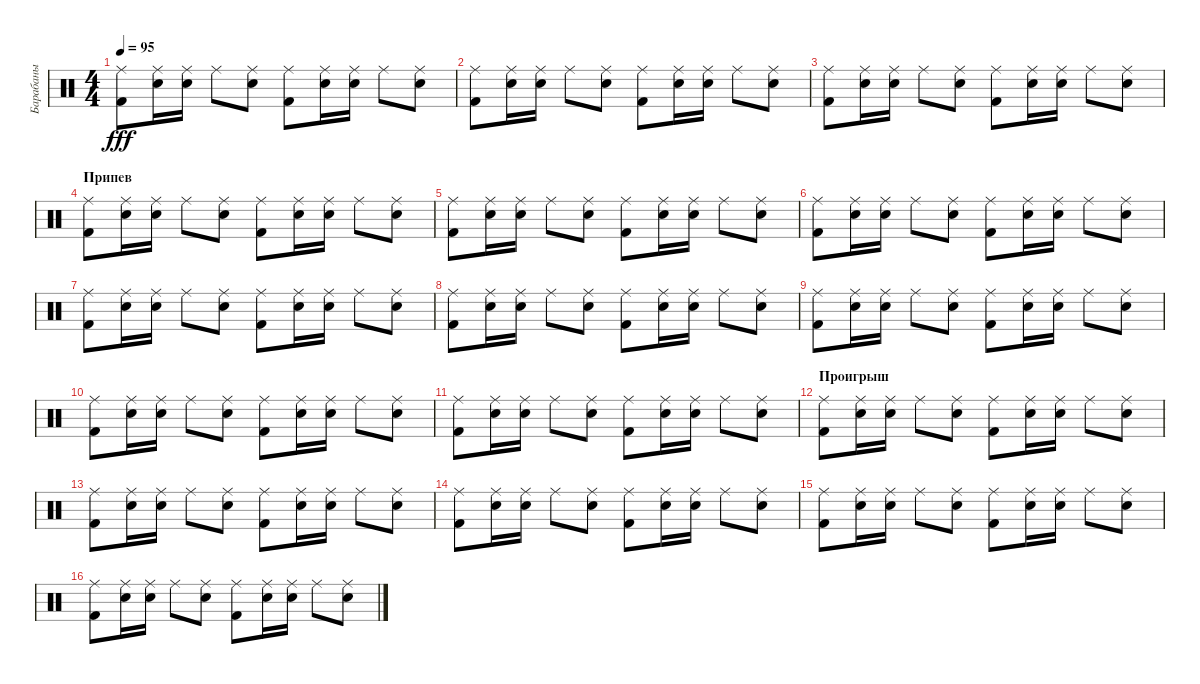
\track ("Барабаны" "Барабаны") {instrument percussion}
\staff {score}
\articulation defaults
\ts (4 4)
\tempo 95
\clef neutral
\ks c
("Kick (hit) 2" "Ride (middle)").8{dy fff} ("Snare (hit) 2" "Ride (middle)").16 ("Snare (hit) 2" "Ride (middle)").16 "Ride (middle)".8 ("Snare (hit) 2" "Ride (middle)").8 ("Kick (hit) 2" "Ride (middle)").8 ("Snare (hit) 2" "Ride (middle)").16 ("Snare (hit) 2" "Ride (middle)").16 "Ride (middle)".8 ("Snare (hit) 2" "Ride (middle)").8 |
("Kick (hit) 2" "Ride (middle)").8 ("Snare (hit) 2" "Ride (middle)").16 ("Snare (hit) 2" "Ride (middle)").16 "Ride (middle)".8 ("Snare (hit) 2" "Ride (middle)").8 ("Kick (hit) 2" "Ride (middle)").8 ("Snare (hit) 2" "Ride (middle)").16 ("Snare (hit) 2" "Ride (middle)").16 "Ride (middle)".8 ("Snare (hit) 2" "Ride (middle)").8 |
("Kick (hit) 2" "Ride (middle)").8 ("Snare (hit) 2" "Ride (middle)").16 ("Snare (hit) 2" "Ride (middle)").16 "Ride (middle)".8 ("Snare (hit) 2" "Ride (middle)").8 ("Kick (hit) 2" "Ride (middle)").8 ("Snare (hit) 2" "Ride (middle)").16 ("Snare (hit) 2" "Ride (middle)").16 "Ride (middle)".8 ("Snare (hit) 2" "Ride (middle)").8 |
\section ("" "Припев")
("Kick (hit) 2" "Ride (middle)").8 ("Snare (hit) 2" "Ride (middle)").16 ("Snare (hit) 2" "Ride (middle)").16 "Ride (middle)".8 ("Snare (hit) 2" "Ride (middle)").8 ("Kick (hit) 2" "Ride (middle)").8 ("Snare (hit) 2" "Ride (middle)").16 ("Snare (hit) 2" "Ride (middle)").16 "Ride (middle)".8 ("Snare (hit) 2" "Ride (middle)").8 |
("Kick (hit) 2" "Ride (middle)").8 ("Snare (hit) 2" "Ride (middle)").16 ("Snare (hit) 2" "Ride (middle)").16 "Ride (middle)".8 ("Snare (hit) 2" "Ride (middle)").8 ("Kick (hit) 2" "Ride (middle)").8 ("Snare (hit) 2" "Ride (middle)").16 ("Snare (hit) 2" "Ride (middle)").16 "Ride (middle)".8 ("Snare (hit) 2" "Ride (middle)").8 |
("Kick (hit) 2" "Ride (middle)").8 ("Snare (hit) 2" "Ride (middle)").16 ("Snare (hit) 2" "Ride (middle)").16 "Ride (middle)".8 ("Snare (hit) 2" "Ride (middle)").8 ("Kick (hit) 2" "Ride (middle)").8 ("Snare (hit) 2" "Ride (middle)").16 ("Snare (hit) 2" "Ride (middle)").16 "Ride (middle)".8 ("Snare (hit) 2" "Ride (middle)").8 |
("Kick (hit) 2" "Ride (middle)").8 ("Snare (hit) 2" "Ride (middle)").16 ("Snare (hit) 2" "Ride (middle)").16 "Ride (middle)".8 ("Snare (hit) 2" "Ride (middle)").8 ("Kick (hit) 2" "Ride (middle)").8 ("Snare (hit) 2" "Ride (middle)").16 ("Snare (hit) 2" "Ride (middle)").16 "Ride (middle)".8 ("Snare (hit) 2" "Ride (middle)").8 |
("Kick (hit) 2" "Ride (middle)").8 ("Snare (hit) 2" "Ride (middle)").16 ("Snare (hit) 2" "Ride (middle)").16 "Ride (middle)".8 ("Snare (hit) 2" "Ride (middle)").8 ("Kick (hit) 2" "Ride (middle)").8 ("Snare (hit) 2" "Ride (middle)").16 ("Snare (hit) 2" "Ride (middle)").16 "Ride (middle)".8 ("Snare (hit) 2" "Ride (middle)").8 |
("Kick (hit) 2" "Ride (middle)").8 ("Snare (hit) 2" "Ride (middle)").16 ("Snare (hit) 2" "Ride (middle)").16 "Ride (middle)".8 ("Snare (hit) 2" "Ride (middle)").8 ("Kick (hit) 2" "Ride (middle)").8 ("Snare (hit) 2" "Ride (middle)").16 ("Snare (hit) 2" "Ride (middle)").16 "Ride (middle)".8 ("Snare (hit) 2" "Ride (middle)").8 |
("Kick (hit) 2" "Ride (middle)").8 ("Snare (hit) 2" "Ride (middle)").16 ("Snare (hit) 2" "Ride (middle)").16 "Ride (middle)".8 ("Snare (hit) 2" "Ride (middle)").8 ("Kick (hit) 2" "Ride (middle)").8 ("Snare (hit) 2" "Ride (middle)").16 ("Snare (hit) 2" "Ride (middle)").16 "Ride (middle)".8 ("Snare (hit) 2" "Ride (middle)").8 |
("Kick (hit) 2" "Ride (middle)").8 ("Snare (hit) 2" "Ride (middle)").16 ("Snare (hit) 2" "Ride (middle)").16 "Ride (middle)".8 ("Snare (hit) 2" "Ride (middle)").8 ("Kick (hit) 2" "Ride (middle)").8 ("Snare (hit) 2" "Ride (middle)").16 ("Snare (hit) 2" "Ride (middle)").16 "Ride (middle)".8 ("Snare (hit) 2" "Ride (middle)").8 |
\section ("" "Проигрыш")
("Kick (hit) 2" "Ride (middle)").8 ("Snare (hit) 2" "Ride (middle)").16 ("Snare (hit) 2" "Ride (middle)").16 "Ride (middle)".8 ("Snare (hit) 2" "Ride (middle)").8 ("Kick (hit) 2" "Ride (middle)").8 ("Snare (hit) 2" "Ride (middle)").16 ("Snare (hit) 2" "Ride (middle)").16 "Ride (middle)".8 ("Snare (hit) 2" "Ride (middle)").8 |
("Kick (hit) 2" "Ride (middle)").8 ("Snare (hit) 2" "Ride (middle)").16 ("Snare (hit) 2" "Ride (middle)").16 "Ride (middle)".8 ("Snare (hit) 2" "Ride (middle)").8 ("Kick (hit) 2" "Ride (middle)").8 ("Snare (hit) 2" "Ride (middle)").16 ("Snare (hit) 2" "Ride (middle)").16 "Ride (middle)".8 ("Snare (hit) 2" "Ride (middle)").8 |
("Kick (hit) 2" "Ride (middle)").8 ("Snare (hit) 2" "Ride (middle)").16 ("Snare (hit) 2" "Ride (middle)").16 "Ride (middle)".8 ("Snare (hit) 2" "Ride (middle)").8 ("Kick (hit) 2" "Ride (middle)").8 ("Snare (hit) 2" "Ride (middle)").16 ("Snare (hit) 2" "Ride (middle)").16 "Ride (middle)".8 ("Snare (hit) 2" "Ride (middle)").8 |
("Kick (hit) 2" "Ride (middle)").8 ("Snare (hit) 2" "Ride (middle)").16 ("Snare (hit) 2" "Ride (middle)").16 "Ride (middle)".8 ("Snare (hit) 2" "Ride (middle)").8 ("Kick (hit) 2" "Ride (middle)").8 ("Snare (hit) 2" "Ride (middle)").16 ("Snare (hit) 2" "Ride (middle)").16 "Ride (middle)".8 ("Snare (hit) 2" "Ride (middle)").8 |
("Kick (hit) 2" "Ride (middle)").8 ("Snare (hit) 2" "Ride (middle)").16 ("Snare (hit) 2" "Ride (middle)").16 "Ride (middle)".8 ("Snare (hit) 2" "Ride (middle)").8 ("Kick (hit) 2" "Ride (middle)").8 ("Snare (hit) 2" "Ride (middle)").16 ("Snare (hit) 2" "Ride (middle)").16 "Ride (middle)".8 ("Snare (hit) 2" "Ride (middle)").8
